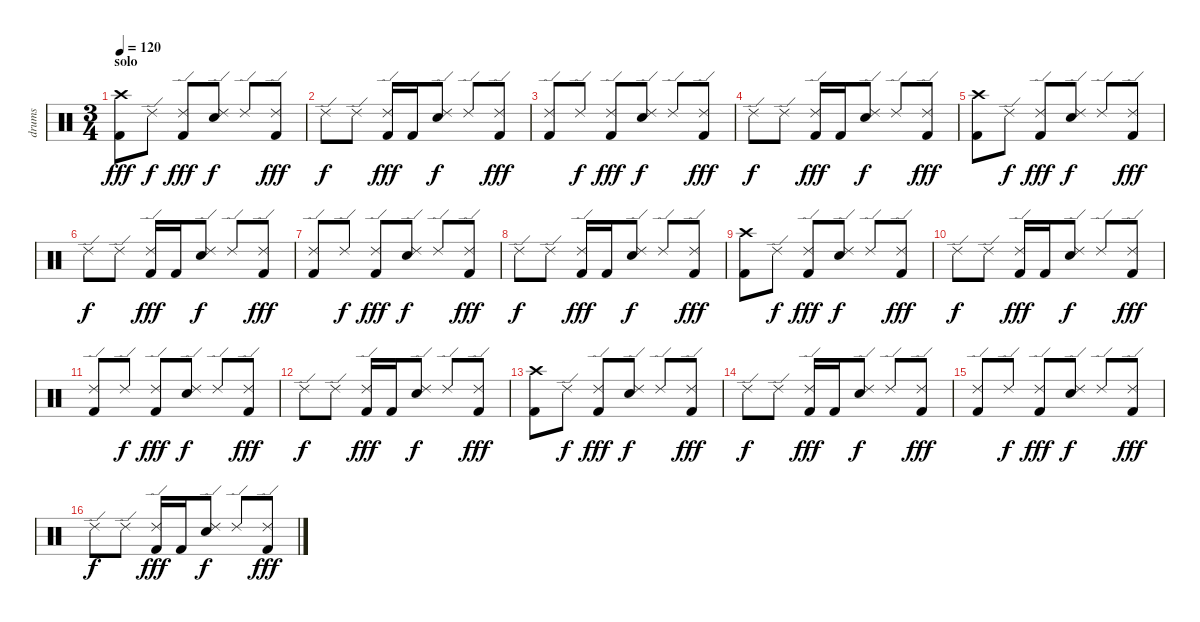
\track ("drums" "drums") {instrument percussion}
\staff {score}
\articulation defaults
\ts (3 4)
\section ("" "solo")
\tempo 120
\clef neutral
\ks c
("Crash high (hit)" "Kick (hit) 2").8{dy fff} "Ride (edge) 2".8{dy f} ("Ride (edge) 2" "Kick (hit) 2").8{dy fff} ("Ride (edge) 2" "Snare (hit) 2").8{dy f} "Ride (edge) 2".8 ("Ride (edge) 2" "Kick (hit) 2").8{dy fff} |
"Ride (edge) 2".8{dy f} "Ride (edge) 2".8 ("Ride (edge) 2" "Kick (hit) 2").16{dy fff} "Kick (hit) 2".16 ("Ride (edge) 2" "Snare (hit) 2").8{dy f} "Ride (edge) 2".8 ("Ride (edge) 2" "Kick (hit) 2").8{dy fff} |
("Ride (edge) 2" "Kick (hit) 2").8 "Ride (edge) 2".8{dy f} ("Ride (edge) 2" "Kick (hit) 2").8{dy fff} ("Ride (edge) 2" "Snare (hit) 2").8{dy f} "Ride (edge) 2".8 ("Ride (edge) 2" "Kick (hit) 2").8{dy fff} |
"Ride (edge) 2".8{dy f} "Ride (edge) 2".8 ("Ride (edge) 2" "Kick (hit) 2").16{dy fff} "Kick (hit) 2".16 ("Ride (edge) 2" "Snare (hit) 2").8{dy f} "Ride (edge) 2".8 ("Ride (edge) 2" "Kick (hit) 2").8{dy fff} |
("Crash high (hit)" "Kick (hit) 2").8 "Ride (edge) 2".8{dy f} ("Ride (edge) 2" "Kick (hit) 2").8{dy fff} ("Ride (edge) 2" "Snare (hit) 2").8{dy f} "Ride (edge) 2".8 ("Ride (edge) 2" "Kick (hit) 2").8{dy fff} |
"Ride (edge) 2".8{dy f} "Ride (edge) 2".8 ("Ride (edge) 2" "Kick (hit) 2").16{dy fff} "Kick (hit) 2".16 ("Ride (edge) 2" "Snare (hit) 2").8{dy f} "Ride (edge) 2".8 ("Ride (edge) 2" "Kick (hit) 2").8{dy fff} |
("Ride (edge) 2" "Kick (hit) 2").8 "Ride (edge) 2".8{dy f} ("Ride (edge) 2" "Kick (hit) 2").8{dy fff} ("Ride (edge) 2" "Snare (hit) 2").8{dy f} "Ride (edge) 2".8 ("Ride (edge) 2" "Kick (hit) 2").8{dy fff} |
"Ride (edge) 2".8{dy f} "Ride (edge) 2".8 ("Ride (edge) 2" "Kick (hit) 2").16{dy fff} "Kick (hit) 2".16 ("Ride (edge) 2" "Snare (hit) 2").8{dy f} "Ride (edge) 2".8 ("Ride (edge) 2" "Kick (hit) 2").8{dy fff} |
("Crash high (hit)" "Kick (hit) 2").8 "Ride (edge) 2".8{dy f} ("Ride (edge) 2" "Kick (hit) 2").8{dy fff} ("Ride (edge) 2" "Snare (hit) 2").8{dy f} "Ride (edge) 2".8 ("Ride (edge) 2" "Kick (hit) 2").8{dy fff} |
"Ride (edge) 2".8{dy f} "Ride (edge) 2".8 ("Ride (edge) 2" "Kick (hit) 2").16{dy fff} "Kick (hit) 2".16 ("Ride (edge) 2" "Snare (hit) 2").8{dy f} "Ride (edge) 2".8 ("Ride (edge) 2" "Kick (hit) 2").8{dy fff} |
("Ride (edge) 2" "Kick (hit) 2").8 "Ride (edge) 2".8{dy f} ("Ride (edge) 2" "Kick (hit) 2").8{dy fff} ("Ride (edge) 2" "Snare (hit) 2").8{dy f} "Ride (edge) 2".8 ("Ride (edge) 2" "Kick (hit) 2").8{dy fff} |
"Ride (edge) 2".8{dy f} "Ride (edge) 2".8 ("Ride (edge) 2" "Kick (hit) 2").16{dy fff} "Kick (hit) 2".16 ("Ride (edge) 2" "Snare (hit) 2").8{dy f} "Ride (edge) 2".8 ("Ride (edge) 2" "Kick (hit) 2").8{dy fff} |
("Crash high (hit)" "Kick (hit) 2").8 "Ride (edge) 2".8{dy f} ("Ride (edge) 2" "Kick (hit) 2").8{dy fff} ("Ride (edge) 2" "Snare (hit) 2").8{dy f} "Ride (edge) 2".8 ("Ride (edge) 2" "Kick (hit) 2").8{dy fff} |
"Ride (edge) 2".8{dy f} "Ride (edge) 2".8 ("Ride (edge) 2" "Kick (hit) 2").16{dy fff} "Kick (hit) 2".16 ("Ride (edge) 2" "Snare (hit) 2").8{dy f} "Ride (edge) 2".8 ("Ride (edge) 2" "Kick (hit) 2").8{dy fff} |
("Ride (edge) 2" "Kick (hit) 2").8 "Ride (edge) 2".8{dy f} ("Ride (edge) 2" "Kick (hit) 2").8{dy fff} ("Ride (edge) 2" "Snare (hit) 2").8{dy f} "Ride (edge) 2".8 ("Ride (edge) 2" "Kick (hit) 2").8{dy fff} |
"Ride (edge) 2".8{dy f} "Ride (edge) 2".8 ("Ride (edge) 2" "Kick (hit) 2").16{dy fff} "Kick (hit) 2".16 ("Ride (edge) 2" "Snare (hit) 2").8{dy f} "Ride (edge) 2".8 ("Ride (edge) 2" "Kick (hit) 2").8{dy fff}
